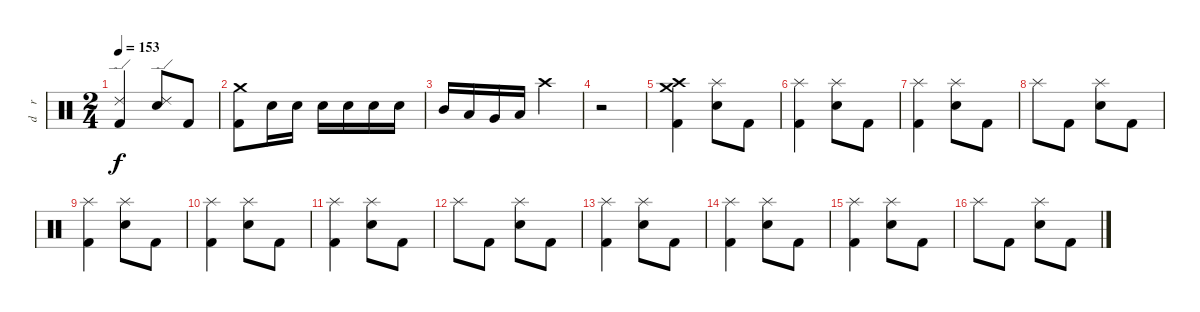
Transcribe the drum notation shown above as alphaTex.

\track ("d    r     u    m    s" "d    r    ") {instrument percussion}
\staff {score}
\articulation defaults
\ts (2 4)
\tempo 153
\clef neutral
\ks c
("Ride (edge) 2" "Kick (hit) 2").4{dy f} ("Ride (edge) 2" "Electric Snare (hit)").8 "Kick (hit) 2".8 |
("Crash medium (hit)" "Kick (hit) 2").8 "Electric Snare (hit)".16 "Electric Snare (hit)".16 "Electric Snare (hit)".16 "Electric Snare (hit)".16 "Electric Snare (hit)".16 "Electric Snare (hit)".16 |
"Mid Tom (hit)".16 "Low Tom (hit)".16 "Very Low Tom (hit)".16 "Low Floor Tom (hit)".16 "Crash high (hit)".4 |
r.2 |
("Crash high (hit)" "Crash medium (hit)" "Kick (hit) 2").4 ("Splash (hit)" "Electric Snare (hit)").8 "Kick (hit) 2".8 |
("Splash (hit)" "Kick (hit) 2").4 ("Splash (hit)" "Electric Snare (hit)").8 "Kick (hit) 2".8 |
("Splash (hit)" "Kick (hit) 2").4 ("Splash (hit)" "Electric Snare (hit)").8 "Kick (hit) 2".8 |
"Splash (hit)".8 "Kick (hit) 2".8 ("Splash (hit)" "Electric Snare (hit)").8 "Kick (hit) 2".8 |
("Splash (hit)" "Kick (hit) 2").4 ("Splash (hit)" "Electric Snare (hit)").8 "Kick (hit) 2".8 |
("Splash (hit)" "Kick (hit) 2").4 ("Splash (hit)" "Electric Snare (hit)").8 "Kick (hit) 2".8 |
("Splash (hit)" "Kick (hit) 2").4 ("Splash (hit)" "Electric Snare (hit)").8 "Kick (hit) 2".8 |
"Splash (hit)".8 "Kick (hit) 2".8 ("Splash (hit)" "Electric Snare (hit)").8 "Kick (hit) 2".8 |
("Splash (hit)" "Kick (hit) 2").4 ("Splash (hit)" "Electric Snare (hit)").8 "Kick (hit) 2".8 |
("Splash (hit)" "Kick (hit) 2").4 ("Splash (hit)" "Electric Snare (hit)").8 "Kick (hit) 2".8 |
("Splash (hit)" "Kick (hit) 2").4 ("Splash (hit)" "Electric Snare (hit)").8 "Kick (hit) 2".8 |
"Splash (hit)".8 "Kick (hit) 2".8 ("Splash (hit)" "Electric Snare (hit)").8 "Kick (hit) 2".8
